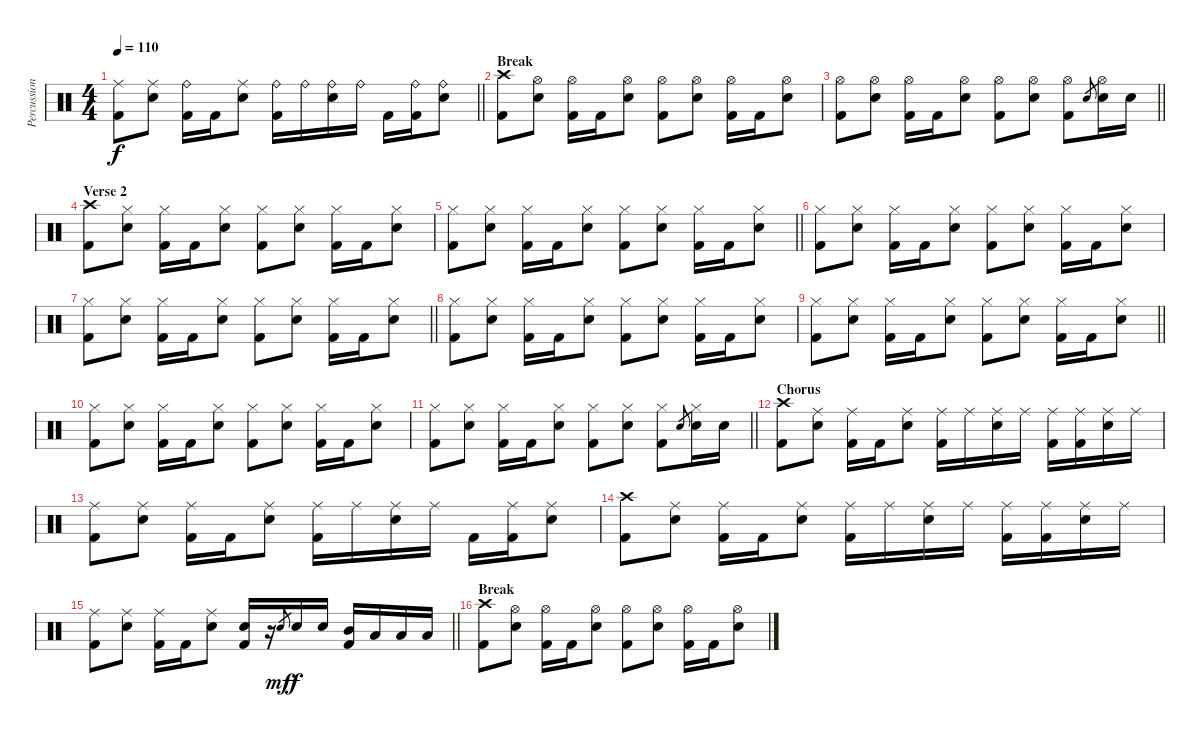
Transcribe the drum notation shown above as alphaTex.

\track ("Percussion" "Percussion") {instrument percussion}
\staff {score}
\articulation defaults
\ts (4 4)
\tempo 110
\clef neutral
\barLineRight lightlight
\ks c
("Ride (middle)" "Kick (hit) 2").8{dy f} ("Ride (middle)" "Electric Snare (hit)").8 ("Ride (bell)" "Kick (hit) 2").16 "Kick (hit) 2".16 ("Ride (middle)" "Electric Snare (hit)").8 ("Ride (bell)" "Kick (hit) 2").16 "Ride (bell)".16 ("Ride (bell)" "Electric Snare (hit)").16 "Ride (bell)".16 "Kick (hit) 2".16 ("Ride (bell)" "Kick (hit) 2").16 ("Ride (bell)" "Electric Snare (hit)").8 |
\section ("" "Break")
("Crash high (hit)" "Kick (hit) 2").8 ("Hi-Hat (open)" "Electric Snare (hit)").8 ("Hi-Hat (open)" "Kick (hit) 2").16 "Kick (hit) 2".16 ("Hi-Hat (open)" "Electric Snare (hit)").8 ("Hi-Hat (open)" "Kick (hit) 2").8 ("Hi-Hat (open)" "Electric Snare (hit)").8 ("Hi-Hat (open)" "Kick (hit) 2").16 "Kick (hit) 2".16 ("Hi-Hat (open)" "Electric Snare (hit)").8 |
\barLineRight lightlight
("Hi-Hat (open)" "Kick (hit) 2").8 ("Hi-Hat (open)" "Electric Snare (hit)").8 ("Hi-Hat (open)" "Kick (hit) 2").16 "Kick (hit) 2".16 ("Hi-Hat (open)" "Electric Snare (hit)").8 ("Hi-Hat (open)" "Kick (hit) 2").8 ("Hi-Hat (open)" "Electric Snare (hit)").8 ("Hi-Hat (open)" "Kick (hit) 2").8 "Electric Snare (hit)".8{gr} ("Hi-Hat (open)" "Electric Snare (hit)").16 "Electric Snare (hit)".16 |
\section ("" "Verse 2")
("Crash high (hit)" "Kick (hit) 2").8 ("Hi-Hat (closed)" "Electric Snare (hit)").8 ("Hi-Hat (closed)" "Kick (hit) 2").16 "Kick (hit) 2".16 ("Hi-Hat (closed)" "Electric Snare (hit)").8 ("Hi-Hat (closed)" "Kick (hit) 2").8 ("Hi-Hat (closed)" "Electric Snare (hit)").8 ("Hi-Hat (closed)" "Kick (hit) 2").16 "Kick (hit) 2".16 ("Hi-Hat (closed)" "Electric Snare (hit)").8 |
\barLineRight lightlight
("Hi-Hat (closed)" "Kick (hit) 2").8 ("Hi-Hat (closed)" "Electric Snare (hit)").8 ("Hi-Hat (closed)" "Kick (hit) 2").16 "Kick (hit) 2".16 ("Hi-Hat (closed)" "Electric Snare (hit)").8 ("Hi-Hat (closed)" "Kick (hit) 2").8 ("Hi-Hat (closed)" "Electric Snare (hit)").8 ("Hi-Hat (closed)" "Kick (hit) 2").16 "Kick (hit) 2".16 ("Hi-Hat (closed)" "Electric Snare (hit)").8 |
("Hi-Hat (closed)" "Kick (hit) 2").8 ("Hi-Hat (closed)" "Electric Snare (hit)").8 ("Hi-Hat (closed)" "Kick (hit) 2").16 "Kick (hit) 2".16 ("Hi-Hat (closed)" "Electric Snare (hit)").8 ("Hi-Hat (closed)" "Kick (hit) 2").8 ("Hi-Hat (closed)" "Electric Snare (hit)").8 ("Hi-Hat (closed)" "Kick (hit) 2").16 "Kick (hit) 2".16 ("Hi-Hat (closed)" "Electric Snare (hit)").8 |
\barLineRight lightlight
("Hi-Hat (closed)" "Kick (hit) 2").8 ("Hi-Hat (closed)" "Electric Snare (hit)").8 ("Hi-Hat (closed)" "Kick (hit) 2").16 "Kick (hit) 2".16 ("Hi-Hat (closed)" "Electric Snare (hit)").8 ("Hi-Hat (closed)" "Kick (hit) 2").8 ("Hi-Hat (closed)" "Electric Snare (hit)").8 ("Hi-Hat (closed)" "Kick (hit) 2").16 "Kick (hit) 2".16 ("Hi-Hat (closed)" "Electric Snare (hit)").8 |
("Hi-Hat (closed)" "Kick (hit) 2").8 ("Hi-Hat (closed)" "Electric Snare (hit)").8 ("Hi-Hat (closed)" "Kick (hit) 2").16 "Kick (hit) 2".16 ("Hi-Hat (closed)" "Electric Snare (hit)").8 ("Hi-Hat (closed)" "Kick (hit) 2").8 ("Hi-Hat (closed)" "Electric Snare (hit)").8 ("Hi-Hat (closed)" "Kick (hit) 2").16 "Kick (hit) 2".16 ("Hi-Hat (closed)" "Electric Snare (hit)").8 |
\barLineRight lightlight
("Hi-Hat (closed)" "Kick (hit) 2").8 ("Hi-Hat (closed)" "Electric Snare (hit)").8 ("Hi-Hat (closed)" "Kick (hit) 2").16 "Kick (hit) 2".16 ("Hi-Hat (closed)" "Electric Snare (hit)").8 ("Hi-Hat (closed)" "Kick (hit) 2").8 ("Hi-Hat (closed)" "Electric Snare (hit)").8 ("Hi-Hat (closed)" "Kick (hit) 2").16 "Kick (hit) 2".16 ("Hi-Hat (closed)" "Electric Snare (hit)").8 |
("Hi-Hat (closed)" "Kick (hit) 2").8 ("Hi-Hat (closed)" "Electric Snare (hit)").8 ("Hi-Hat (closed)" "Kick (hit) 2").16 "Kick (hit) 2".16 ("Hi-Hat (closed)" "Electric Snare (hit)").8 ("Hi-Hat (closed)" "Kick (hit) 2").8 ("Hi-Hat (closed)" "Electric Snare (hit)").8 ("Hi-Hat (closed)" "Kick (hit) 2").16 "Kick (hit) 2".16 ("Hi-Hat (closed)" "Electric Snare (hit)").8 |
\barLineRight lightlight
("Hi-Hat (closed)" "Kick (hit) 2").8 ("Hi-Hat (closed)" "Electric Snare (hit)").8 ("Hi-Hat (closed)" "Kick (hit) 2").16 "Kick (hit) 2".16 ("Hi-Hat (closed)" "Electric Snare (hit)").8 ("Hi-Hat (closed)" "Kick (hit) 2").8 ("Hi-Hat (closed)" "Electric Snare (hit)").8 ("Hi-Hat (closed)" "Kick (hit) 2").8 "Electric Snare (hit)".8{gr} ("Hi-Hat (closed)" "Electric Snare (hit)").16 "Electric Snare (hit)".16 |
\section ("" "Chorus")
("Crash high (hit)" "Kick (hit) 2").8 ("Ride (middle)" "Electric Snare (hit)").8 ("Ride (middle)" "Kick (hit) 2").16 "Kick (hit) 2".16 ("Ride (middle)" "Electric Snare (hit)").8 ("Ride (middle)" "Kick (hit) 2").16 "Ride (middle)".16 ("Ride (middle)" "Electric Snare (hit)").16 "Ride (middle)".16 ("Ride (middle)" "Kick (hit) 2").16 ("Ride (middle)" "Kick (hit) 2").16 ("Ride (middle)" "Electric Snare (hit)").16 "Ride (middle)".16 |
("Ride (middle)" "Kick (hit) 2").8 ("Ride (middle)" "Electric Snare (hit)").8 ("Ride (middle)" "Kick (hit) 2").16 "Kick (hit) 2".16 ("Ride (middle)" "Electric Snare (hit)").8 ("Ride (middle)" "Kick (hit) 2").16 "Ride (middle)".16 ("Ride (middle)" "Electric Snare (hit)").16 "Ride (middle)".16 "Kick (hit) 2".16 ("Ride (middle)" "Kick (hit) 2").16 ("Ride (middle)" "Electric Snare (hit)").8 |
("Crash high (hit)" "Kick (hit) 2").8 ("Ride (middle)" "Electric Snare (hit)").8 ("Ride (middle)" "Kick (hit) 2").16 "Kick (hit) 2".16 ("Ride (middle)" "Electric Snare (hit)").8 ("Ride (middle)" "Kick (hit) 2").16 "Ride (middle)".16 ("Ride (middle)" "Electric Snare (hit)").16 "Ride (middle)".16 ("Ride (middle)" "Kick (hit) 2").16 ("Ride (middle)" "Kick (hit) 2").16 ("Ride (middle)" "Electric Snare (hit)").16 "Ride (middle)".16 |
\barLineRight lightlight
("Ride (middle)" "Kick (hit) 2").8 ("Ride (middle)" "Electric Snare (hit)").8 ("Ride (middle)" "Kick (hit) 2").16 "Kick (hit) 2".16 ("Ride (middle)" "Electric Snare (hit)").8 ("Electric Snare (hit)" "Kick (hit) 2").16 r.16 "Electric Snare (hit)".8{gr dy mf} "Electric Snare (hit)".16{dy f} "Electric Snare (hit)".16 ("Mid Tom (hit)" "Kick (hit) 2").16 "Low Tom (hit)".16 "Low Tom (hit)".16 "Low Floor Tom (hit)".16 |
\section ("" "Break")
("Crash high (hit)" "Kick (hit) 2").8 ("Hi-Hat (open)" "Electric Snare (hit)").8 ("Hi-Hat (open)" "Kick (hit) 2").16 "Kick (hit) 2".16 ("Hi-Hat (open)" "Electric Snare (hit)").8 ("Hi-Hat (open)" "Kick (hit) 2").8 ("Hi-Hat (open)" "Electric Snare (hit)").8 ("Hi-Hat (open)" "Kick (hit) 2").16 "Kick (hit) 2".16 ("Hi-Hat (open)" "Electric Snare (hit)").8
